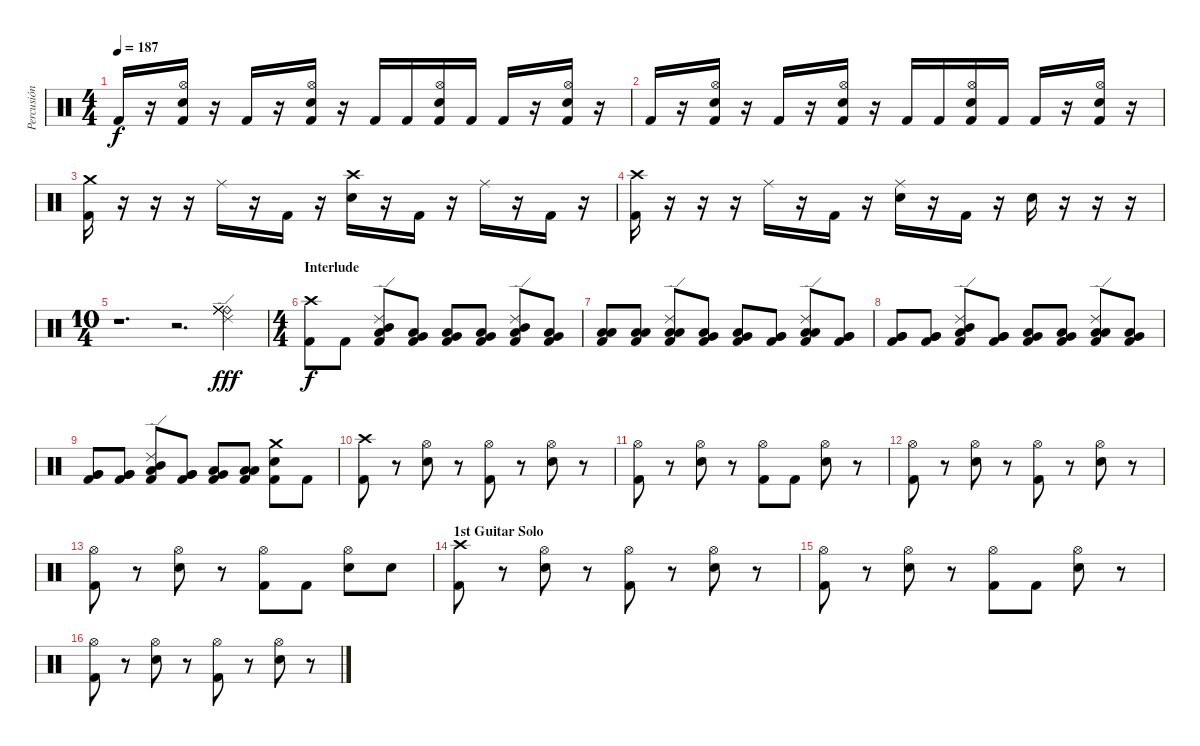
\track ("Percusión" "Percusión") {instrument percussion}
\staff {score}
\articulation defaults
\ts (4 4)
\tempo 187
\clef neutral
\ks c "Kick (hit) 2".16{dy f}
r.16 ("Hi-Hat (open)" "Electric Snare (hit)" "Kick (hit) 2").16 r.16 "Kick (hit) 2".16 r.16 ("Hi-Hat (open)" "Electric Snare (hit)" "Kick (hit) 2").16 r.16 "Kick (hit) 2".16 "Kick (hit) 2".16 ("Hi-Hat (open)" "Electric Snare (hit)" "Kick (hit) 2").16 "Kick (hit) 2".16 "Kick (hit) 2".16 r.16 ("Hi-Hat (open)" "Electric Snare (hit)" "Kick (hit) 2").16 r.16 |
"Kick (hit) 2".16 r.16 ("Hi-Hat (open)" "Electric Snare (hit)" "Kick (hit) 2").16 r.16 "Kick (hit) 2".16 r.16 ("Hi-Hat (open)" "Electric Snare (hit)" "Kick (hit) 2").16 r.16 "Kick (hit) 2".16 "Kick (hit) 2".16 ("Hi-Hat (open)" "Electric Snare (hit)" "Kick (hit) 2").16 "Kick (hit) 2".16 "Kick (hit) 2".16 r.16 ("Hi-Hat (open)" "Electric Snare (hit)" "Kick (hit) 2").16 r.16 |
("Crash medium (hit)" "Kick (hit) 2").16 r.16 r.16 r.16 "Ride (middle)".16 r.16 "Kick (hit) 2".16 r.16 ("Crash high (hit)" "Electric Snare (hit)").16 r.16 "Kick (hit) 2".16 r.16 "Ride (middle)".16 r.16 "Kick (hit) 2".16 r.16 |
("Crash high (hit)" "Kick (hit) 2").16 r.16 r.16 r.16 "Ride (middle)".16 r.16 "Kick (hit) 2".16 r.16 ("Ride (middle)" "Electric Snare (hit)").16 r.16 "Kick (hit) 2".16 r.16 "Electric Snare (hit)".16 r.16 r.16 r.16 |
\ts (10 4)
r.1{d} r.2{d} ("Ride (bell)" "Ride (middle)" "Ride (middle)" "Ride (middle)" "Ride (middle)" "Ride (edge) 2").4{dy fff} |
\ts (4 4)
\section ("" "Interlude")
("Crash high (hit)" "Kick (hit) 2").8{dy f} "Kick (hit) 2".8 ("Ride (edge) 2" "Low Tom (hit)" "Mid Tom (hit)" "Kick (hit) 2").8 ("Very Low Tom (hit)" "Low Tom (hit)" "Kick (hit) 2").8 ("Very Low Tom (hit)" "Low Tom (hit)" "Kick (hit) 2").8 ("Very Low Tom (hit)" "Low Tom (hit)" "Kick (hit) 2").8 ("Ride (edge) 2" "Low Tom (hit)" "Mid Tom (hit)" "Kick (hit) 2").8 ("Very Low Tom (hit)" "Low Tom (hit)" "Kick (hit) 2").8 |
("Low Tom (hit)" "Low Tom (hit)" "Kick (hit) 2").8 ("Low Tom (hit)" "Low Tom (hit)" "Kick (hit) 2").8 ("Ride (edge) 2" "Low Tom (hit)" "Low Tom (hit)" "Kick (hit) 2").8 ("Low Tom (hit)" "Very Low Tom (hit)" "Kick (hit) 2").8 ("Low Tom (hit)" "Very Low Tom (hit)" "Kick (hit) 2").8 ("Very Low Tom (hit)" "Very Low Tom (hit)" "Kick (hit) 2").8 ("Ride (edge) 2" "Low Tom (hit)" "Low Tom (hit)" "Kick (hit) 2").8 ("Very Low Tom (hit)" "Very Low Tom (hit)" "Kick (hit) 2").8 |
("Very Low Tom (hit)" "Very Low Tom (hit)" "Kick (hit) 2").8 ("Very Low Tom (hit)" "Very Low Tom (hit)" "Kick (hit) 2").8 ("Ride (edge) 2" "Low Tom (hit)" "Mid Tom (hit)" "Kick (hit) 2").8 ("Very Low Tom (hit)" "Very Low Tom (hit)" "Kick (hit) 2").8 ("Very Low Tom (hit)" "Low Floor Tom (hit)" "Kick (hit) 2").8 ("Very Low Tom (hit)" "Low Floor Tom (hit)" "Kick (hit) 2").8 ("Ride (edge) 2" "Low Tom (hit)" "Low Tom (hit)" "Kick (hit) 2").8 ("Very Low Tom (hit)" "Low Floor Tom (hit)" "Kick (hit) 2").8 |
("Very Low Tom (hit)" "Very Low Tom (hit)" "Kick (hit) 2").8 ("Very Low Tom (hit)" "Very Low Tom (hit)" "Kick (hit) 2").8 ("Ride (edge) 2" "Low Tom (hit)" "Mid Tom (hit)" "Kick (hit) 2").8 ("Very Low Tom (hit)" "Very Low Tom (hit)" "Kick (hit) 2").8 ("Very Low Tom (hit)" "Low Floor Tom (hit)" "Kick (hit) 2").8 ("Low Floor Tom (hit)" "Low Floor Tom (hit)" "Kick (hit) 2").8 ("Crash medium (hit)" "Electric Snare (hit)" "Kick (hit) 2").8 "Kick (hit) 2".8 |
("Crash high (hit)" "Kick (hit) 2").8 r.8 ("Hi-Hat (open)" "Electric Snare (hit)").8 r.8 ("Hi-Hat (open)" "Kick (hit) 2").8 r.8 ("Hi-Hat (open)" "Electric Snare (hit)").8 r.8 |
("Hi-Hat (open)" "Kick (hit) 2").8 r.8 ("Hi-Hat (open)" "Electric Snare (hit)").8 r.8 ("Hi-Hat (open)" "Kick (hit) 2").8 "Kick (hit) 2".8 ("Hi-Hat (open)" "Electric Snare (hit)").8 r.8 |
("Hi-Hat (open)" "Kick (hit) 2").8 r.8 ("Hi-Hat (open)" "Electric Snare (hit)").8 r.8 ("Hi-Hat (open)" "Kick (hit) 2").8 r.8 ("Hi-Hat (open)" "Electric Snare (hit)").8 r.8 |
("Hi-Hat (open)" "Kick (hit) 2").8 r.8 ("Hi-Hat (open)" "Electric Snare (hit)").8 r.8 ("Hi-Hat (open)" "Kick (hit) 2").8 "Kick (hit) 2".8 ("Hi-Hat (open)" "Electric Snare (hit)").8 "Electric Snare (hit)".8 |
\section ("" "1st Guitar Solo")
("Crash high (hit)" "Kick (hit) 2").8 r.8 ("Hi-Hat (open)" "Electric Snare (hit)").8 r.8 ("Hi-Hat (open)" "Kick (hit) 2").8 r.8 ("Hi-Hat (open)" "Electric Snare (hit)").8 r.8 |
("Hi-Hat (open)" "Kick (hit) 2").8 r.8 ("Hi-Hat (open)" "Electric Snare (hit)").8 r.8 ("Hi-Hat (open)" "Kick (hit) 2").8 "Kick (hit) 2".8 ("Hi-Hat (open)" "Electric Snare (hit)").8 r.8 |
("Hi-Hat (open)" "Kick (hit) 2").8 r.8 ("Hi-Hat (open)" "Electric Snare (hit)").8 r.8 ("Hi-Hat (open)" "Kick (hit) 2").8 r.8 ("Hi-Hat (open)" "Electric Snare (hit)").8 r.8
